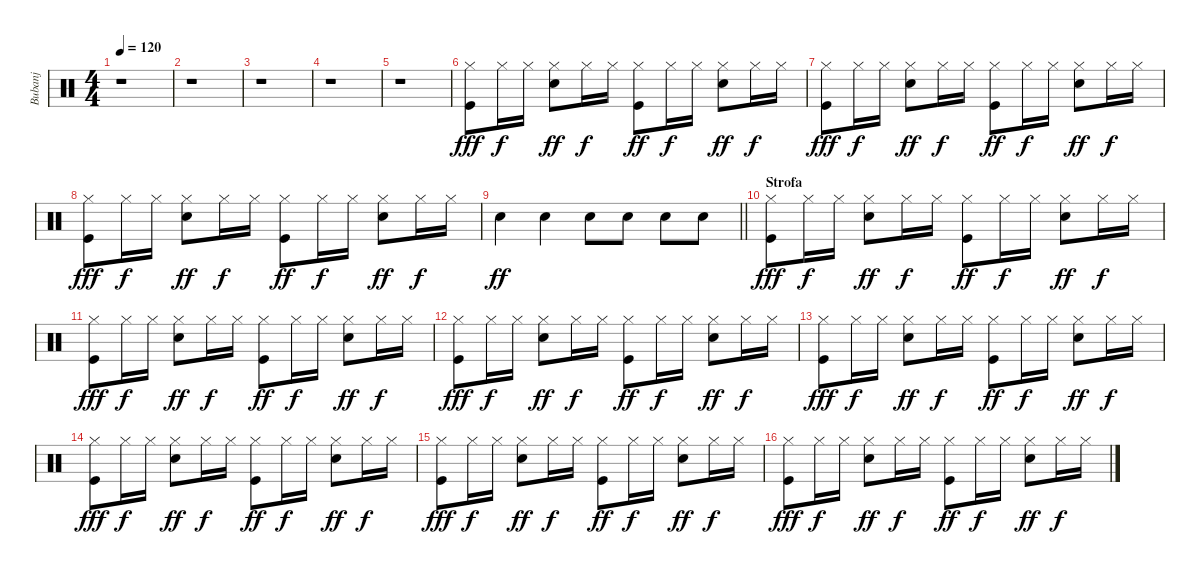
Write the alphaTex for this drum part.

\track ("Bubanj" "Bubanj") {instrument percussion}
\staff {score}
\articulation defaults
\ts (4 4)
\tempo 120
\clef neutral
\ks c
r.1{dy fff} |
r.1 |
r.1 |
r.1 |
r.1 |
("Kick (hit)" "Hi-Hat (closed)").8 "Hi-Hat (closed)".16{dy f} "Hi-Hat (closed)".16 ("Electric Snare (hit)" "Hi-Hat (closed)").8{dy ff} "Hi-Hat (closed)".16{dy f} "Hi-Hat (closed)".16 ("Kick (hit)" "Hi-Hat (closed)").8{dy ff} "Hi-Hat (closed)".16{dy f} "Hi-Hat (closed)".16 ("Electric Snare (hit)" "Hi-Hat (closed)").8{dy ff} "Hi-Hat (closed)".16{dy f} "Hi-Hat (closed)".16 |
("Kick (hit)" "Hi-Hat (closed)").8{dy fff} "Hi-Hat (closed)".16{dy f} "Hi-Hat (closed)".16 ("Electric Snare (hit)" "Hi-Hat (closed)").8{dy ff} "Hi-Hat (closed)".16{dy f} "Hi-Hat (closed)".16 ("Kick (hit)" "Hi-Hat (closed)").8{dy ff} "Hi-Hat (closed)".16{dy f} "Hi-Hat (closed)".16 ("Electric Snare (hit)" "Hi-Hat (closed)").8{dy ff} "Hi-Hat (closed)".16{dy f} "Hi-Hat (closed)".16 |
("Kick (hit)" "Hi-Hat (closed)").8{dy fff} "Hi-Hat (closed)".16{dy f} "Hi-Hat (closed)".16 ("Electric Snare (hit)" "Hi-Hat (closed)").8{dy ff} "Hi-Hat (closed)".16{dy f} "Hi-Hat (closed)".16 ("Kick (hit)" "Hi-Hat (closed)").8{dy ff} "Hi-Hat (closed)".16{dy f} "Hi-Hat (closed)".16 ("Electric Snare (hit)" "Hi-Hat (closed)").8{dy ff} "Hi-Hat (closed)".16{dy f} "Hi-Hat (closed)".16 |
\barLineRight lightlight "Electric Snare (hit)".4{dy ff} "Electric Snare (hit)".4 "Electric Snare (hit)".8 "Electric Snare (hit)".8 "Electric Snare (hit)".8 "Electric Snare (hit)".8
|
\section ("" "Strofa")
("Kick (hit)" "Hi-Hat (closed)").8{dy fff} "Hi-Hat (closed)".16{dy f} "Hi-Hat (closed)".16 ("Electric Snare (hit)" "Hi-Hat (closed)").8{dy ff} "Hi-Hat (closed)".16{dy f} "Hi-Hat (closed)".16 ("Kick (hit)" "Hi-Hat (closed)").8{dy ff} "Hi-Hat (closed)".16{dy f} "Hi-Hat (closed)".16 ("Electric Snare (hit)" "Hi-Hat (closed)").8{dy ff} "Hi-Hat (closed)".16{dy f} "Hi-Hat (closed)".16 |
("Kick (hit)" "Hi-Hat (closed)").8{dy fff} "Hi-Hat (closed)".16{dy f} "Hi-Hat (closed)".16 ("Electric Snare (hit)" "Hi-Hat (closed)").8{dy ff} "Hi-Hat (closed)".16{dy f} "Hi-Hat (closed)".16 ("Kick (hit)" "Hi-Hat (closed)").8{dy ff} "Hi-Hat (closed)".16{dy f} "Hi-Hat (closed)".16 ("Electric Snare (hit)" "Hi-Hat (closed)").8{dy ff} "Hi-Hat (closed)".16{dy f} "Hi-Hat (closed)".16 |
("Kick (hit)" "Hi-Hat (closed)").8{dy fff} "Hi-Hat (closed)".16{dy f} "Hi-Hat (closed)".16 ("Electric Snare (hit)" "Hi-Hat (closed)").8{dy ff} "Hi-Hat (closed)".16{dy f} "Hi-Hat (closed)".16 ("Kick (hit)" "Hi-Hat (closed)").8{dy ff} "Hi-Hat (closed)".16{dy f} "Hi-Hat (closed)".16 ("Electric Snare (hit)" "Hi-Hat (closed)").8{dy ff} "Hi-Hat (closed)".16{dy f} "Hi-Hat (closed)".16 |
("Kick (hit)" "Hi-Hat (closed)").8{dy fff} "Hi-Hat (closed)".16{dy f} "Hi-Hat (closed)".16 ("Electric Snare (hit)" "Hi-Hat (closed)").8{dy ff} "Hi-Hat (closed)".16{dy f} "Hi-Hat (closed)".16 ("Kick (hit)" "Hi-Hat (closed)").8{dy ff} "Hi-Hat (closed)".16{dy f} "Hi-Hat (closed)".16 ("Electric Snare (hit)" "Hi-Hat (closed)").8{dy ff} "Hi-Hat (closed)".16{dy f} "Hi-Hat (closed)".16 |
("Kick (hit)" "Hi-Hat (closed)").8{dy fff} "Hi-Hat (closed)".16{dy f} "Hi-Hat (closed)".16 ("Electric Snare (hit)" "Hi-Hat (closed)").8{dy ff} "Hi-Hat (closed)".16{dy f} "Hi-Hat (closed)".16 ("Kick (hit)" "Hi-Hat (closed)").8{dy ff} "Hi-Hat (closed)".16{dy f} "Hi-Hat (closed)".16 ("Electric Snare (hit)" "Hi-Hat (closed)").8{dy ff} "Hi-Hat (closed)".16{dy f} "Hi-Hat (closed)".16 |
("Kick (hit)" "Hi-Hat (closed)").8{dy fff} "Hi-Hat (closed)".16{dy f} "Hi-Hat (closed)".16 ("Electric Snare (hit)" "Hi-Hat (closed)").8{dy ff} "Hi-Hat (closed)".16{dy f} "Hi-Hat (closed)".16 ("Kick (hit)" "Hi-Hat (closed)").8{dy ff} "Hi-Hat (closed)".16{dy f} "Hi-Hat (closed)".16 ("Electric Snare (hit)" "Hi-Hat (closed)").8{dy ff} "Hi-Hat (closed)".16{dy f} "Hi-Hat (closed)".16 |
("Kick (hit)" "Hi-Hat (closed)").8{dy fff} "Hi-Hat (closed)".16{dy f} "Hi-Hat (closed)".16 ("Electric Snare (hit)" "Hi-Hat (closed)").8{dy ff} "Hi-Hat (closed)".16{dy f} "Hi-Hat (closed)".16 ("Kick (hit)" "Hi-Hat (closed)").8{dy ff} "Hi-Hat (closed)".16{dy f} "Hi-Hat (closed)".16 ("Electric Snare (hit)" "Hi-Hat (closed)").8{dy ff} "Hi-Hat (closed)".16{dy f} "Hi-Hat (closed)".16
